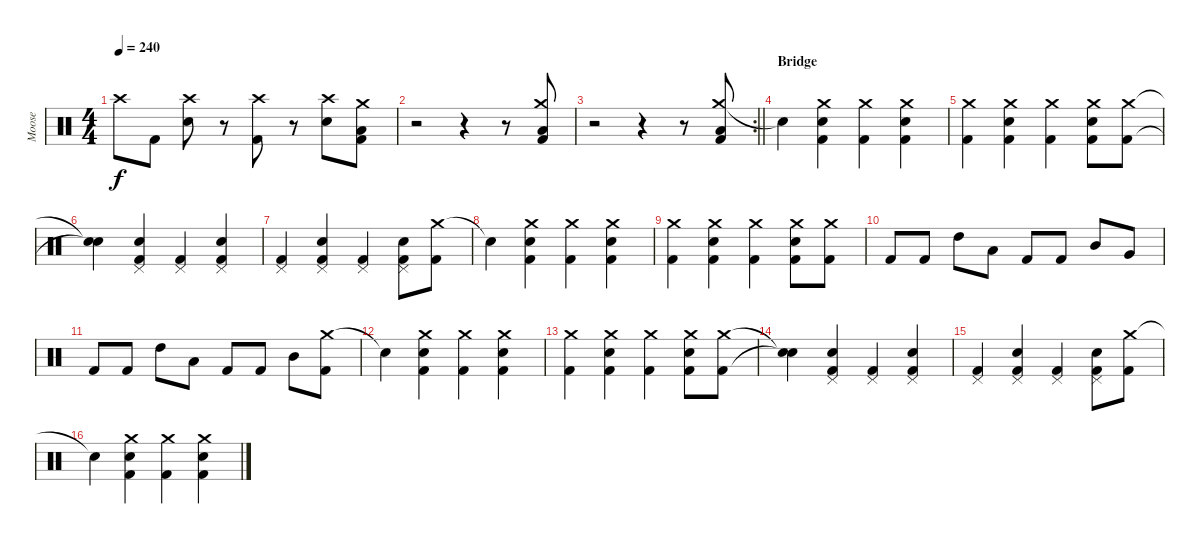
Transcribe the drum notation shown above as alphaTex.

\track ("Moose" "Moose") {instrument percussion}
\staff {score}
\articulation defaults
\ts (4 4)
\tempo 240
\clef neutral
\ks c "Crash high (hit)".8{dy f} "Kick (hit) 2".8
("Crash high (hit)" "Snare (hit) 2").8 r.8 ("Crash high (hit)" "Kick (hit) 2").8 r.8 ("Crash high (hit)" "Snare (hit) 2").8 ("Crash medium (hit)" "Low Floor Tom (hit)" "Kick (hit) 2").8 |
r.2 r.4 r.8 ("Crash medium (hit)" "Low Floor Tom (hit)" "Kick (hit) 2").8 |
\rc 2
\barLineRight lightlight
r.2 r.4 r.8 ("Crash medium (hit)" "Low Floor Tom (hit)" "Kick (hit) 2").8 |
\section ("" "Bridge")
"Snare (hit)"{t}.4 ("Crash medium (hit)" "Snare (hit) 2" "Kick (hit) 2").4 ("Crash medium (hit)" "Kick (hit) 2").4 ("Crash medium (hit)" "Snare (hit) 2" "Kick (hit) 2").4 |
("Crash medium (hit)" "Kick (hit) 2").4 ("Crash medium (hit)" "Snare (hit) 2" "Kick (hit) 2").4 ("Crash medium (hit)" "Kick (hit) 2").4 ("Crash medium (hit)" "Snare (hit) 2" "Kick (hit) 2").8 ("Crash medium (hit)" "Kick (hit) 2").8 |
("Snare (hit)"{t} "Snare (hit)"{t}).4 ("Pedal Hi-Hat (hit)" "Snare (hit) 2" "Kick (hit) 2").4 ("Pedal Hi-Hat (hit)" "Kick (hit) 2").4 ("Pedal Hi-Hat (hit)" "Snare (hit) 2" "Kick (hit) 2").4 |
("Pedal Hi-Hat (hit)" "Kick (hit) 2").4 ("Pedal Hi-Hat (hit)" "Snare (hit) 2" "Kick (hit) 2").4 ("Pedal Hi-Hat (hit)" "Kick (hit) 2").4 ("Pedal Hi-Hat (hit)" "Snare (hit) 2" "Kick (hit) 2").8 ("Crash medium (hit)" "Kick (hit) 2").8 |
"Snare (hit)"{t}.4 ("Crash medium (hit)" "Snare (hit) 2" "Kick (hit) 2").4 ("Crash medium (hit)" "Kick (hit) 2").4 ("Crash medium (hit)" "Snare (hit) 2" "Kick (hit) 2").4 |
("Crash medium (hit)" "Kick (hit) 2").4 ("Crash medium (hit)" "Snare (hit) 2" "Kick (hit) 2").4 ("Crash medium (hit)" "Kick (hit) 2").4 ("Crash medium (hit)" "Snare (hit) 2" "Kick (hit) 2").8 ("Crash medium (hit)" "Kick (hit) 2").8 |
"Kick (hit) 2".8 "Kick (hit) 2".8 "High Tom (hit)".8 "Low Tom (hit)".8 "Kick (hit) 2".8 "Kick (hit) 2".8 "Mid Tom (hit)".8 "Very Low Tom (hit)".8 |
"Kick (hit) 2".8 "Kick (hit) 2".8 "High Tom (hit)".8 "Low Tom (hit)".8 "Kick (hit) 2".8 "Kick (hit) 2".8 "Mid Tom (hit)".8 ("Crash medium (hit)" "Kick (hit) 2").8 |
"Snare (hit)"{t}.4 ("Crash medium (hit)" "Snare (hit) 2" "Kick (hit) 2").4 ("Crash medium (hit)" "Kick (hit) 2").4 ("Crash medium (hit)" "Snare (hit) 2" "Kick (hit) 2").4 |
("Crash medium (hit)" "Kick (hit) 2").4 ("Crash medium (hit)" "Snare (hit) 2" "Kick (hit) 2").4 ("Crash medium (hit)" "Kick (hit) 2").4 ("Crash medium (hit)" "Snare (hit) 2" "Kick (hit) 2").8 ("Crash medium (hit)" "Kick (hit) 2").8 |
("Snare (hit)"{t} "Snare (hit)"{t}).4 ("Pedal Hi-Hat (hit)" "Snare (hit) 2" "Kick (hit) 2").4 ("Pedal Hi-Hat (hit)" "Kick (hit) 2").4 ("Pedal Hi-Hat (hit)" "Snare (hit) 2" "Kick (hit) 2").4 |
("Pedal Hi-Hat (hit)" "Kick (hit) 2").4 ("Pedal Hi-Hat (hit)" "Snare (hit) 2" "Kick (hit) 2").4 ("Pedal Hi-Hat (hit)" "Kick (hit) 2").4 ("Pedal Hi-Hat (hit)" "Snare (hit) 2" "Kick (hit) 2").8 ("Crash medium (hit)" "Kick (hit) 2").8 |
"Snare (hit)"{t}.4 ("Crash medium (hit)" "Snare (hit) 2" "Kick (hit) 2").4 ("Crash medium (hit)" "Kick (hit) 2").4 ("Crash medium (hit)" "Snare (hit) 2" "Kick (hit) 2").4
